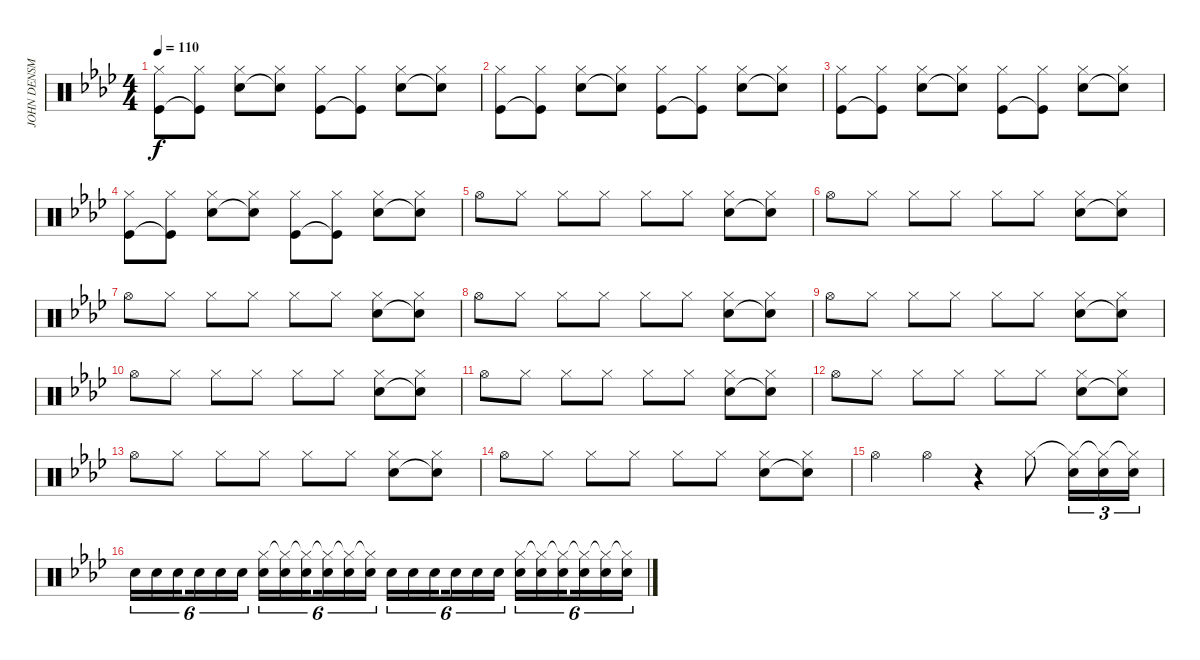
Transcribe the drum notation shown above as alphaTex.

\track ("JOHN DENSMORE" "JOHN DENSM") {instrument percussion}
\staff {score}
\articulation defaults
\ts (4 4)
\tempo 110
\clef neutral
\ks ab
("Kick (hit)" "Hi-Hat (closed)").8{dy f} ("Kick (hit)"{t} "Hi-Hat (closed)").8 ("Snare (hit) 2" "Hi-Hat (closed)").8 ("Snare (hit) 2"{t} "Hi-Hat (closed)").8 ("Kick (hit)" "Hi-Hat (closed)").8 ("Kick (hit)"{t} "Hi-Hat (closed)").8 ("Snare (hit) 2" "Hi-Hat (closed)").8 ("Snare (hit) 2"{t} "Hi-Hat (closed)").8 |
("Kick (hit)" "Hi-Hat (closed)").8 ("Kick (hit)"{t} "Hi-Hat (closed)").8 ("Snare (hit) 2" "Hi-Hat (closed)").8 ("Snare (hit) 2"{t} "Hi-Hat (closed)").8 ("Kick (hit)" "Hi-Hat (closed)").8 ("Kick (hit)"{t} "Hi-Hat (closed)").8 ("Snare (hit) 2" "Hi-Hat (closed)").8 ("Snare (hit) 2"{t} "Hi-Hat (closed)").8 |
("Kick (hit)" "Hi-Hat (closed)").8 ("Kick (hit)"{t} "Hi-Hat (closed)").8 ("Snare (hit) 2" "Hi-Hat (closed)").8 ("Snare (hit) 2"{t} "Hi-Hat (closed)").8 ("Kick (hit)" "Hi-Hat (closed)").8 ("Kick (hit)"{t} "Hi-Hat (closed)").8 ("Snare (hit) 2" "Hi-Hat (closed)").8 ("Snare (hit) 2"{t} "Hi-Hat (closed)").8 |
("Kick (hit)" "Hi-Hat (closed)").8 ("Kick (hit)"{t} "Hi-Hat (closed)").8 ("Snare (hit) 2" "Hi-Hat (closed)").8 ("Snare (hit) 2"{t} "Hi-Hat (closed)").8 ("Kick (hit)" "Hi-Hat (closed)").8 ("Kick (hit)"{t} "Hi-Hat (closed)").8 ("Snare (hit) 2" "Hi-Hat (closed)").8 ("Snare (hit) 2"{t} "Hi-Hat (closed)").8 |
"Hi-Hat (open)".8 "Hi-Hat (closed)".8 "Hi-Hat (closed)".8 "Hi-Hat (closed)".8 "Hi-Hat (closed)".8 "Hi-Hat (closed)".8 ("Snare (hit) 2" "Hi-Hat (closed)").8 ("Snare (hit) 2"{t} "Hi-Hat (closed)").8 |
"Hi-Hat (open)".8 "Hi-Hat (closed)".8 "Hi-Hat (closed)".8 "Hi-Hat (closed)".8 "Hi-Hat (closed)".8 "Hi-Hat (closed)".8 ("Snare (hit) 2" "Hi-Hat (closed)").8 ("Snare (hit) 2"{t} "Hi-Hat (closed)").8 |
"Hi-Hat (open)".8 "Hi-Hat (closed)".8 "Hi-Hat (closed)".8 "Hi-Hat (closed)".8 "Hi-Hat (closed)".8 "Hi-Hat (closed)".8 ("Snare (hit) 2" "Hi-Hat (closed)").8 ("Snare (hit) 2"{t} "Hi-Hat (closed)").8 |
"Hi-Hat (open)".8 "Hi-Hat (closed)".8 "Hi-Hat (closed)".8 "Hi-Hat (closed)".8 "Hi-Hat (closed)".8 "Hi-Hat (closed)".8 ("Snare (hit) 2" "Hi-Hat (closed)").8 ("Snare (hit) 2"{t} "Hi-Hat (closed)").8 |
"Hi-Hat (open)".8 "Hi-Hat (closed)".8 "Hi-Hat (closed)".8 "Hi-Hat (closed)".8 "Hi-Hat (closed)".8 "Hi-Hat (closed)".8 ("Snare (hit) 2" "Hi-Hat (closed)").8 ("Snare (hit) 2"{t} "Hi-Hat (closed)").8 |
"Hi-Hat (open)".8 "Hi-Hat (closed)".8 "Hi-Hat (closed)".8 "Hi-Hat (closed)".8 "Hi-Hat (closed)".8 "Hi-Hat (closed)".8 ("Snare (hit) 2" "Hi-Hat (closed)").8 ("Snare (hit) 2"{t} "Hi-Hat (closed)").8 |
"Hi-Hat (open)".8 "Hi-Hat (closed)".8 "Hi-Hat (closed)".8 "Hi-Hat (closed)".8 "Hi-Hat (closed)".8 "Hi-Hat (closed)".8 ("Snare (hit) 2" "Hi-Hat (closed)").8 ("Snare (hit) 2"{t} "Hi-Hat (closed)").8 |
"Hi-Hat (open)".8 "Hi-Hat (closed)".8 "Hi-Hat (closed)".8 "Hi-Hat (closed)".8 "Hi-Hat (closed)".8 "Hi-Hat (closed)".8 ("Snare (hit) 2" "Hi-Hat (closed)").8 ("Snare (hit) 2"{t} "Hi-Hat (closed)").8 |
"Hi-Hat (open)".8 "Hi-Hat (closed)".8 "Hi-Hat (closed)".8 "Hi-Hat (closed)".8 "Hi-Hat (closed)".8 "Hi-Hat (closed)".8 ("Snare (hit) 2" "Hi-Hat (closed)").8 ("Snare (hit) 2"{t} "Hi-Hat (closed)").8 |
"Hi-Hat (open)".8 "Hi-Hat (closed)".8 "Hi-Hat (closed)".8 "Hi-Hat (closed)".8 "Hi-Hat (closed)".8 "Hi-Hat (closed)".8 ("Snare (hit) 2" "Hi-Hat (closed)").8 ("Snare (hit) 2"{t} "Hi-Hat (closed)").8 |
"Hi-Hat (open)".4 "Hi-Hat (open)".4 r.4 "Hi-Hat (closed)".8 ("Hi-Hat (closed)"{t} "Snare (hit) 2").16{tu (3 2)} ("Hi-Hat (closed)"{t} "Snare (hit) 2").16{tu (3 2)} ("Hi-Hat (closed)"{t} "Snare (hit) 2").16{tu (3 2)} |
"Snare (hit) 2".16{tu (6 4)} "Snare (hit) 2".16{tu (6 4)} "Snare (hit) 2".16{tu (6 4) beam splitsecondary} "Snare (hit) 2".16{tu (6 4)} "Snare (hit) 2".16{tu (6 4)} "Snare (hit) 2".16{tu (6 4)} ("Snare (hit) 2" "Hi-Hat (closed)").16{tu (6 4)} ("Snare (hit) 2" "Hi-Hat (closed)"{t}).16{tu (6 4)} ("Snare (hit) 2" "Hi-Hat (closed)"{t}).16{tu (6 4) beam splitsecondary} ("Snare (hit) 2" "Hi-Hat (closed)"{t}).16{tu (6 4)} ("Snare (hit) 2" "Hi-Hat (closed)"{t}).16{tu (6 4)} ("Snare (hit) 2" "Hi-Hat (closed)"{t}).16{tu (6 4)} "Snare (hit) 2".16{tu (6 4)} "Snare (hit) 2".16{tu (6 4)} "Snare (hit) 2".16{tu (6 4) beam splitsecondary} "Snare (hit) 2".16{tu (6 4)} "Snare (hit) 2".16{tu (6 4)} "Snare (hit) 2".16{tu (6 4)} ("Snare (hit) 2" "Hi-Hat (closed)").16{tu (6 4)} ("Snare (hit) 2" "Hi-Hat (closed)"{t}).16{tu (6 4)} ("Snare (hit) 2" "Hi-Hat (closed)"{t}).16{tu (6 4) beam splitsecondary} ("Snare (hit) 2" "Hi-Hat (closed)"{t}).16{tu (6 4)} ("Snare (hit) 2" "Hi-Hat (closed)"{t}).16{tu (6 4)} ("Snare (hit) 2" "Hi-Hat (closed)"{t}).16{tu (6 4)}
